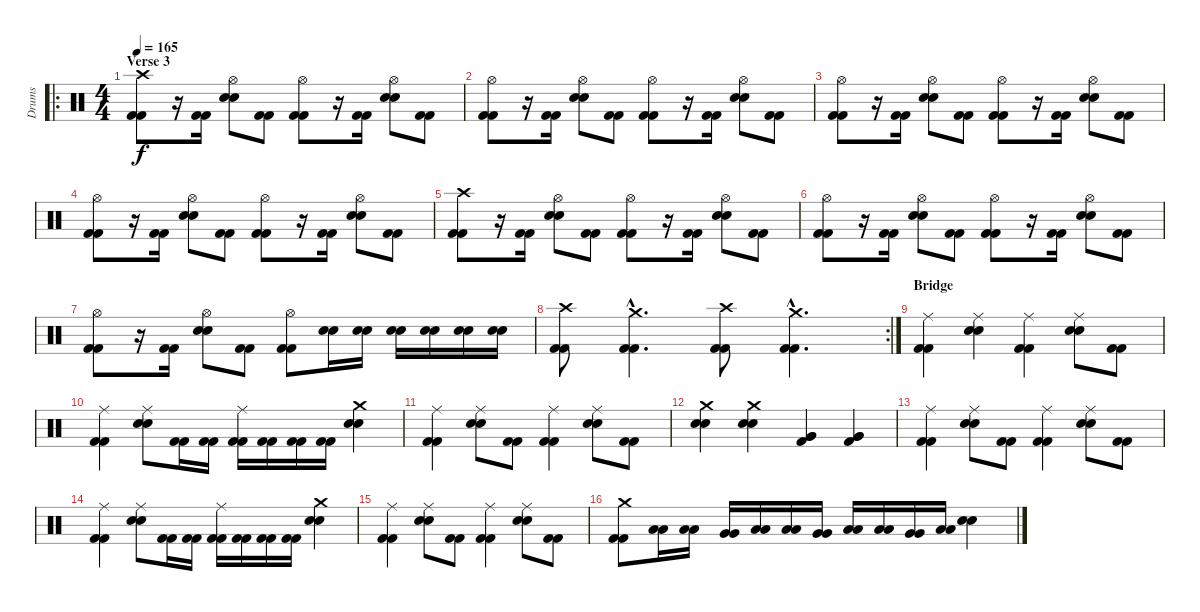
\track ("Drums" "Drums") {instrument percussion}
\staff {score}
\articulation defaults
\ro
\ts (4 4)
\section ("" "Verse 3")
\tempo 165
\clef neutral
\ks c
("Crash high (hit)" "Kick (hit) 2" "Kick (hit) 2").8{dy f} r.16 ("Kick (hit) 2" "Kick (hit) 2").16 ("Hi-Hat (open)" "Snare (hit) 2" "Snare (hit) 2").8 ("Kick (hit) 2" "Kick (hit) 2").8 ("Hi-Hat (open)" "Kick (hit) 2" "Kick (hit) 2").8 r.16 ("Kick (hit) 2" "Kick (hit) 2").16 ("Hi-Hat (open)" "Snare (hit) 2" "Snare (hit) 2").8 ("Kick (hit) 2" "Kick (hit) 2").8 |
("Hi-Hat (open)" "Kick (hit) 2" "Kick (hit) 2").8 r.16 ("Kick (hit) 2" "Kick (hit) 2").16 ("Hi-Hat (open)" "Snare (hit) 2" "Snare (hit) 2").8 ("Kick (hit) 2" "Kick (hit) 2").8 ("Hi-Hat (open)" "Kick (hit) 2" "Kick (hit) 2").8 r.16 ("Kick (hit) 2" "Kick (hit) 2").16 ("Hi-Hat (open)" "Snare (hit) 2" "Snare (hit) 2").8 ("Kick (hit) 2" "Kick (hit) 2").8 |
("Hi-Hat (open)" "Kick (hit) 2" "Kick (hit) 2").8 r.16 ("Kick (hit) 2" "Kick (hit) 2").16 ("Hi-Hat (open)" "Snare (hit) 2" "Snare (hit) 2").8 ("Kick (hit) 2" "Kick (hit) 2").8 ("Hi-Hat (open)" "Kick (hit) 2" "Kick (hit) 2").8 r.16 ("Kick (hit) 2" "Kick (hit) 2").16 ("Hi-Hat (open)" "Snare (hit) 2" "Snare (hit) 2").8 ("Kick (hit) 2" "Kick (hit) 2").8 |
("Hi-Hat (open)" "Kick (hit) 2" "Kick (hit) 2").8 r.16 ("Kick (hit) 2" "Kick (hit) 2").16 ("Hi-Hat (open)" "Snare (hit) 2" "Snare (hit) 2").8 ("Kick (hit) 2" "Kick (hit) 2").8 ("Hi-Hat (open)" "Kick (hit) 2" "Kick (hit) 2").8 r.16 ("Kick (hit) 2" "Kick (hit) 2").16 ("Hi-Hat (open)" "Snare (hit) 2" "Snare (hit) 2").8 ("Kick (hit) 2" "Kick (hit) 2").8 |
("Crash high (hit)" "Kick (hit) 2" "Kick (hit) 2").8 r.16 ("Kick (hit) 2" "Kick (hit) 2").16 ("Hi-Hat (open)" "Snare (hit) 2" "Snare (hit) 2").8 ("Kick (hit) 2" "Kick (hit) 2").8 ("Hi-Hat (open)" "Kick (hit) 2" "Kick (hit) 2").8 r.16 ("Kick (hit) 2" "Kick (hit) 2").16 ("Hi-Hat (open)" "Snare (hit) 2" "Snare (hit) 2").8 ("Kick (hit) 2" "Kick (hit) 2").8 |
("Hi-Hat (open)" "Kick (hit) 2" "Kick (hit) 2").8 r.16 ("Kick (hit) 2" "Kick (hit) 2").16 ("Hi-Hat (open)" "Snare (hit) 2" "Snare (hit) 2").8 ("Kick (hit) 2" "Kick (hit) 2").8 ("Hi-Hat (open)" "Kick (hit) 2" "Kick (hit) 2").8 r.16 ("Kick (hit) 2" "Kick (hit) 2").16 ("Hi-Hat (open)" "Snare (hit) 2" "Snare (hit) 2").8 ("Kick (hit) 2" "Kick (hit) 2").8 |
("Hi-Hat (open)" "Kick (hit) 2" "Kick (hit) 2").8 r.16 ("Kick (hit) 2" "Kick (hit) 2").16 ("Hi-Hat (open)" "Snare (hit) 2" "Snare (hit) 2").8 ("Kick (hit) 2" "Kick (hit) 2").8 ("Hi-Hat (open)" "Kick (hit) 2" "Kick (hit) 2").8 ("Snare (hit) 2" "Snare (hit) 2").16 ("Snare (hit) 2" "Snare (hit) 2").16 ("Snare (hit) 2" "Snare (hit) 2").16 ("Snare (hit) 2" "Snare (hit) 2").16 ("Snare (hit) 2" "Snare (hit) 2").16 ("Snare (hit) 2" "Snare (hit) 2").16 |
\rc 2
("Crash high (hit)" "Kick (hit) 2" "Kick (hit) 2").8 ("Crash medium (hit)"{hac} "Kick (hit) 2"{hac} "Kick (hit) 2"{hac}).4{d} ("Crash high (hit)" "Kick (hit) 2" "Kick (hit) 2").8 ("Crash medium (hit)"{hac} "Kick (hit) 2"{hac} "Kick (hit) 2"{hac}).4{d} |
\section ("" "Bridge")
("Ride (middle)" "Kick (hit) 2" "Kick (hit) 2").4 ("Ride (middle)" "Snare (hit) 2" "Snare (hit) 2").4 ("Ride (middle)" "Kick (hit) 2" "Kick (hit) 2").4 ("Ride (middle)" "Snare (hit) 2" "Snare (hit) 2").8 ("Kick (hit) 2" "Kick (hit) 2").8 |
("Ride (middle)" "Kick (hit) 2" "Kick (hit) 2").4 ("Ride (middle)" "Snare (hit) 2" "Snare (hit) 2").8 ("Kick (hit) 2" "Kick (hit) 2").16 ("Kick (hit) 2" "Kick (hit) 2").16 ("Ride (middle)" "Kick (hit) 2" "Kick (hit) 2").16 ("Kick (hit) 2" "Kick (hit) 2").16 ("Kick (hit) 2" "Kick (hit) 2").16 ("Kick (hit) 2" "Kick (hit) 2").16 ("Crash medium (hit)" "Snare (hit) 2" "Snare (hit) 2").4 |
("Ride (middle)" "Kick (hit) 2" "Kick (hit) 2").4 ("Ride (middle)" "Snare (hit) 2" "Snare (hit) 2").8 ("Kick (hit) 2" "Kick (hit) 2").8 ("Ride (middle)" "Kick (hit) 2" "Kick (hit) 2").4 ("Ride (middle)" "Snare (hit) 2" "Snare (hit) 2").8 ("Kick (hit) 2" "Kick (hit) 2").8 |
("Crash medium (hit)" "Snare (hit) 2" "Snare (hit) 2").4 ("Crash medium (hit)" "Snare (hit) 2" "Snare (hit) 2").4 ("Very Low Tom (hit)" "Very Low Tom (hit)" "Kick (hit) 2").4 ("Very Low Tom (hit)" "Very Low Tom (hit)" "Kick (hit) 2").4 |
("Ride (middle)" "Kick (hit) 2" "Kick (hit) 2").4 ("Ride (middle)" "Snare (hit) 2" "Snare (hit) 2").8 ("Kick (hit) 2" "Kick (hit) 2").8 ("Ride (middle)" "Kick (hit) 2" "Kick (hit) 2").4 ("Ride (middle)" "Snare (hit) 2" "Snare (hit) 2").8 ("Kick (hit) 2" "Kick (hit) 2").8 |
("Ride (middle)" "Kick (hit) 2" "Kick (hit) 2").4 ("Ride (middle)" "Snare (hit) 2" "Snare (hit) 2").8 ("Kick (hit) 2" "Kick (hit) 2").16 ("Kick (hit) 2" "Kick (hit) 2").16 ("Ride (middle)" "Kick (hit) 2" "Kick (hit) 2").16 ("Kick (hit) 2" "Kick (hit) 2").16 ("Kick (hit) 2" "Kick (hit) 2").16 ("Kick (hit) 2" "Kick (hit) 2").16 ("Crash medium (hit)" "Snare (hit) 2" "Snare (hit) 2").4 |
("Ride (middle)" "Kick (hit) 2" "Kick (hit) 2").4 ("Ride (middle)" "Snare (hit) 2" "Snare (hit) 2").8 ("Kick (hit) 2" "Kick (hit) 2").8 ("Ride (middle)" "Kick (hit) 2" "Kick (hit) 2").4 ("Ride (middle)" "Snare (hit) 2" "Snare (hit) 2").8 ("Kick (hit) 2" "Kick (hit) 2").8 |
("Crash medium (hit)" "Kick (hit) 2" "Kick (hit) 2").8 ("Low Tom (hit)" "Low Tom (hit)").16 ("Low Tom (hit)" "Low Tom (hit)").16 ("Very Low Tom (hit)" "Very Low Tom (hit)").16 ("Low Tom (hit)" "Low Tom (hit)").16 ("Low Tom (hit)" "Low Tom (hit)").16 ("Very Low Tom (hit)" "Very Low Tom (hit)").16 ("Low Tom (hit)" "Low Tom (hit)").16 ("Low Tom (hit)" "Low Tom (hit)").16 ("Very Low Tom (hit)" "Very Low Tom (hit)").16 ("Low Tom (hit)" "Low Tom (hit)").16 ("Snare (hit) 2" "Snare (hit) 2").4
